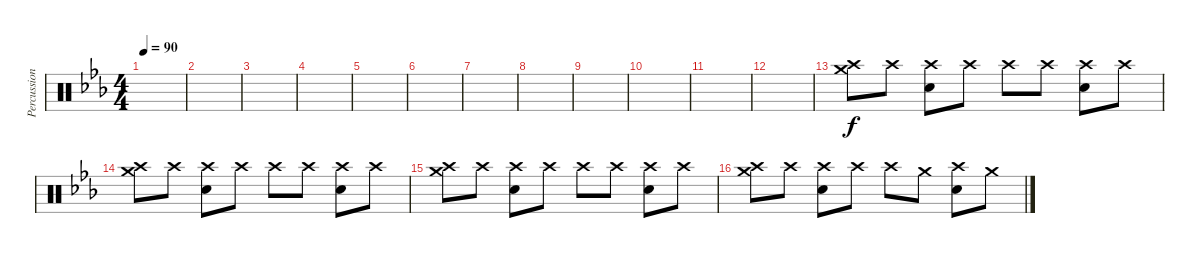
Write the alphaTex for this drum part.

\track ("Percussion" "Percussion") {instrument percussion}
\staff {score}
\articulation defaults
\ts (4 4)
\tempo 90
\clef neutral
\ks cminor
|
|
|
|
|
|
|
|
|
|
|
|
("Crash medium (hit)" "Crash high (hit)").8 "Crash high (hit)".8 ("Electric Snare (hit)" "Crash high (hit)").8 "Crash high (hit)".8 "Crash high (hit)".8 "Crash high (hit)".8 ("Electric Snare (hit)" "Crash high (hit)").8 "Crash high (hit)".8 |
("Crash medium (hit)" "Crash high (hit)").8 "Crash high (hit)".8 ("Electric Snare (hit)" "Crash high (hit)").8 "Crash high (hit)".8 "Crash high (hit)".8 "Crash high (hit)".8 ("Electric Snare (hit)" "Crash high (hit)").8 "Crash high (hit)".8 |
("Crash medium (hit)" "Crash high (hit)").8 "Crash high (hit)".8 ("Electric Snare (hit)" "Crash high (hit)").8 "Crash high (hit)".8 "Crash high (hit)".8 "Crash high (hit)".8 ("Electric Snare (hit)" "Crash high (hit)").8 "Crash high (hit)".8 |
("Crash medium (hit)" "Crash high (hit)").8 "Crash high (hit)".8 ("Electric Snare (hit)" "Crash high (hit)").8 "Crash high (hit)".8 "Crash high (hit)".8 "Crash medium (hit)".8 ("Electric Snare (hit)" "Crash high (hit)").8 "Crash medium (hit)".8
